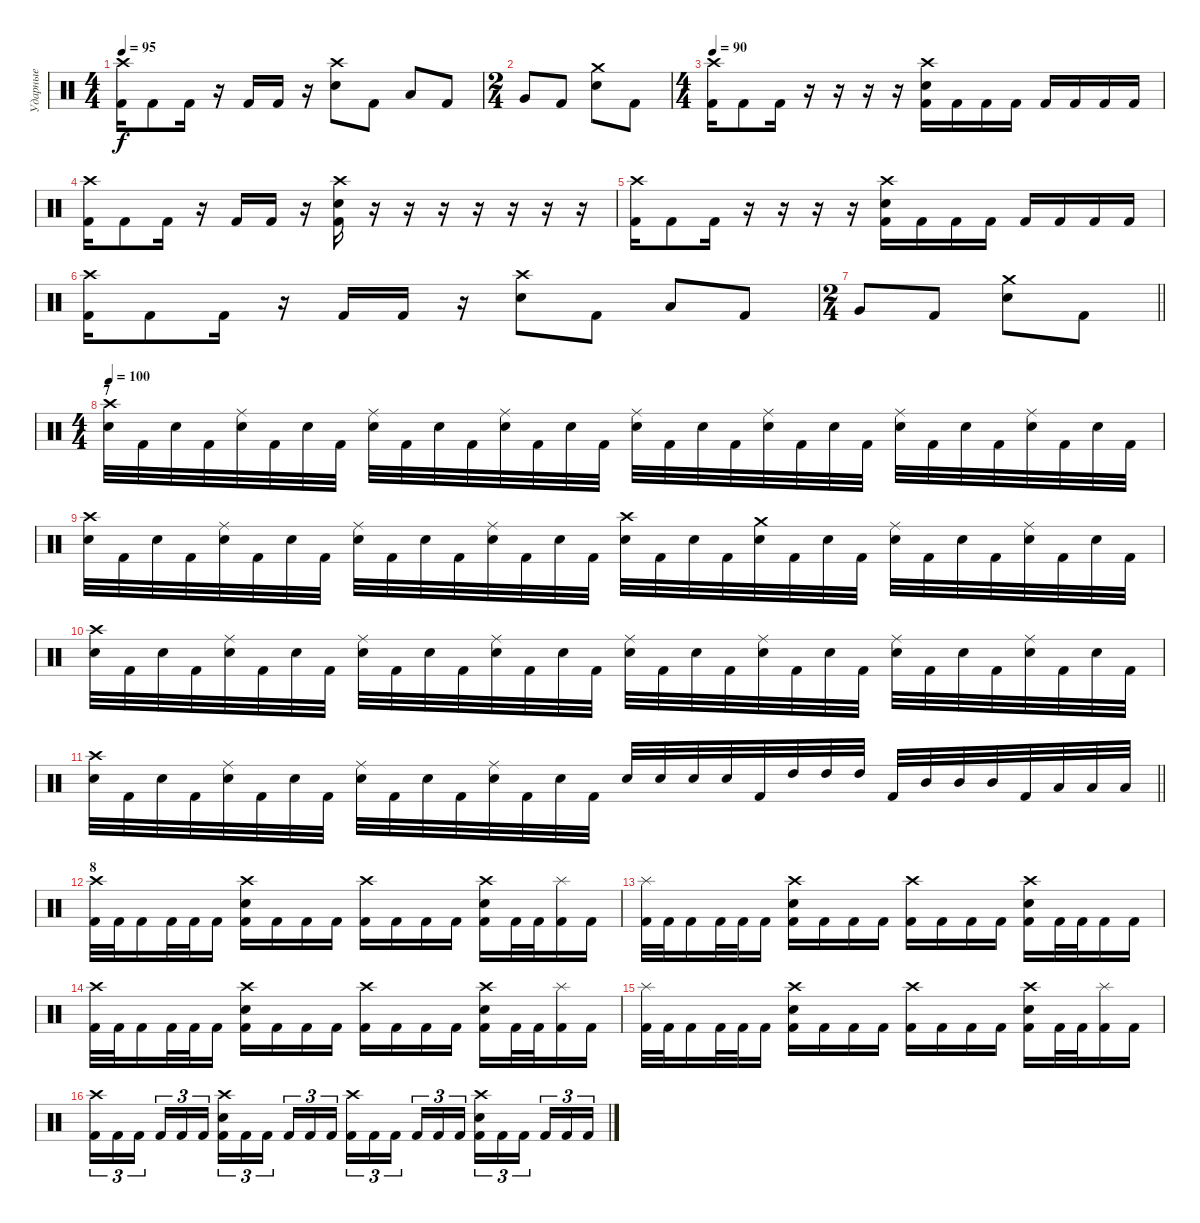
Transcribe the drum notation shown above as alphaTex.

\track ("Ударные" "Ударные") {instrument percussion}
\staff {score}
\articulation defaults
\ts (4 4)
\tempo 95
\clef neutral
\ks c
("Crash high (hit)" "Kick (hit) 2").16{dy f} "Kick (hit) 2".8 "Kick (hit) 2".16 r.16 "Kick (hit) 2".16 "Kick (hit) 2".16 r.16 ("Crash high (hit)" "Electric Snare (hit)").8 "Kick (hit) 2".8 "Low Tom (hit)".8 "Kick (hit) 2".8 |
\ts (2 4)
"Very Low Tom (hit)".8 "Kick (hit) 2".8 ("Crash medium (hit)" "Electric Snare (hit)").8 "Kick (hit) 2".8 |
\ts (4 4)
\tempo 90
("Crash high (hit)" "Kick (hit) 2").16 "Kick (hit) 2".8 "Kick (hit) 2".16 r.16 r.16 r.16 r.16 ("Crash high (hit)" "Electric Snare (hit)" "Kick (hit) 2").16 "Kick (hit) 2".16 "Kick (hit) 2".16 "Kick (hit) 2".16 "Kick (hit) 2".16 "Kick (hit) 2".16 "Kick (hit) 2".16 "Kick (hit) 2".16 |
("Crash high (hit)" "Kick (hit) 2").16 "Kick (hit) 2".8 "Kick (hit) 2".16 r.16 "Kick (hit) 2".16 "Kick (hit) 2".16 r.16 ("Crash high (hit)" "Electric Snare (hit)" "Kick (hit) 2").16 r.16 r.16 r.16 r.16 r.16 r.16 r.16 |
("Crash high (hit)" "Kick (hit) 2").16 "Kick (hit) 2".8 "Kick (hit) 2".16 r.16 r.16 r.16 r.16 ("Crash high (hit)" "Electric Snare (hit)" "Kick (hit) 2").16 "Kick (hit) 2".16 "Kick (hit) 2".16 "Kick (hit) 2".16 "Kick (hit) 2".16 "Kick (hit) 2".16 "Kick (hit) 2".16 "Kick (hit) 2".16 |
("Crash high (hit)" "Kick (hit) 2").16 "Kick (hit) 2".8 "Kick (hit) 2".16 r.16 "Kick (hit) 2".16 "Kick (hit) 2".16 r.16 ("Crash high (hit)" "Electric Snare (hit)").8 "Kick (hit) 2".8 "Low Tom (hit)".8 "Kick (hit) 2".8 |
\ts (2 4)
\barLineRight lightlight "Very Low Tom (hit)".8 "Kick (hit) 2".8
("Crash medium (hit)" "Electric Snare (hit)").8 "Kick (hit) 2".8 |
\ts (4 4)
\section ("" "7")
\tempo 100
("Crash high (hit)" "Electric Snare (hit)").32 "Kick (hit) 2".32 "Electric Snare (hit)".32 "Kick (hit) 2".32 ("Ride (middle)" "Electric Snare (hit)").32 "Kick (hit) 2".32 "Electric Snare (hit)".32 "Kick (hit) 2".32 ("Ride (middle)" "Electric Snare (hit)").32 "Kick (hit) 2".32 "Electric Snare (hit)".32 "Kick (hit) 2".32 ("Ride (middle)" "Electric Snare (hit)").32 "Kick (hit) 2".32 "Electric Snare (hit)".32 "Kick (hit) 2".32 ("Ride (middle)" "Electric Snare (hit)").32 "Kick (hit) 2".32 "Electric Snare (hit)".32 "Kick (hit) 2".32 ("Ride (middle)" "Electric Snare (hit)").32 "Kick (hit) 2".32 "Electric Snare (hit)".32 "Kick (hit) 2".32 ("Ride (middle)" "Electric Snare (hit)").32 "Kick (hit) 2".32 "Electric Snare (hit)".32 "Kick (hit) 2".32 ("Ride (middle)" "Electric Snare (hit)").32 "Kick (hit) 2".32 "Electric Snare (hit)".32 "Kick (hit) 2".32 |
("Crash high (hit)" "Electric Snare (hit)").32 "Kick (hit) 2".32 "Electric Snare (hit)".32 "Kick (hit) 2".32 ("Ride (middle)" "Electric Snare (hit)").32 "Kick (hit) 2".32 "Electric Snare (hit)".32 "Kick (hit) 2".32 ("Ride (middle)" "Electric Snare (hit)").32 "Kick (hit) 2".32 "Electric Snare (hit)".32 "Kick (hit) 2".32 ("Ride (middle)" "Electric Snare (hit)").32 "Kick (hit) 2".32 "Electric Snare (hit)".32 "Kick (hit) 2".32 ("Crash high (hit)" "Electric Snare (hit)").32 "Kick (hit) 2".32 "Electric Snare (hit)".32 "Kick (hit) 2".32 ("Crash medium (hit)" "Electric Snare (hit)").32 "Kick (hit) 2".32 "Electric Snare (hit)".32 "Kick (hit) 2".32 ("Ride (middle)" "Electric Snare (hit)").32 "Kick (hit) 2".32 "Electric Snare (hit)".32 "Kick (hit) 2".32 ("Ride (middle)" "Electric Snare (hit)").32 "Kick (hit) 2".32 "Electric Snare (hit)".32 "Kick (hit) 2".32 |
("Crash high (hit)" "Electric Snare (hit)").32 "Kick (hit) 2".32 "Electric Snare (hit)".32 "Kick (hit) 2".32 ("Ride (middle)" "Electric Snare (hit)").32 "Kick (hit) 2".32 "Electric Snare (hit)".32 "Kick (hit) 2".32 ("Ride (middle)" "Electric Snare (hit)").32 "Kick (hit) 2".32 "Electric Snare (hit)".32 "Kick (hit) 2".32 ("Ride (middle)" "Electric Snare (hit)").32 "Kick (hit) 2".32 "Electric Snare (hit)".32 "Kick (hit) 2".32 ("Ride (middle)" "Electric Snare (hit)").32 "Kick (hit) 2".32 "Electric Snare (hit)".32 "Kick (hit) 2".32 ("Ride (middle)" "Electric Snare (hit)").32 "Kick (hit) 2".32 "Electric Snare (hit)".32 "Kick (hit) 2".32 ("Ride (middle)" "Electric Snare (hit)").32 "Kick (hit) 2".32 "Electric Snare (hit)".32 "Kick (hit) 2".32 ("Ride (middle)" "Electric Snare (hit)").32 "Kick (hit) 2".32 "Electric Snare (hit)".32 "Kick (hit) 2".32 |
\barLineRight lightlight
("Crash high (hit)" "Electric Snare (hit)").32 "Kick (hit) 2".32 "Electric Snare (hit)".32 "Kick (hit) 2".32 ("Ride (middle)" "Electric Snare (hit)").32 "Kick (hit) 2".32 "Electric Snare (hit)".32 "Kick (hit) 2".32 ("Ride (middle)" "Electric Snare (hit)").32 "Kick (hit) 2".32 "Electric Snare (hit)".32 "Kick (hit) 2".32 ("Ride (middle)" "Electric Snare (hit)").32 "Kick (hit) 2".32 "Electric Snare (hit)".32 "Kick (hit) 2".32 "Electric Snare (hit)".32 "Electric Snare (hit)".32 "Electric Snare (hit)".32 "Electric Snare (hit)".32 "Kick (hit) 2".32 "High Tom (hit)".32 "High Tom (hit)".32 "High Tom (hit)".32 "Kick (hit) 2".32 "Mid Tom (hit)".32 "Mid Tom (hit)".32 "Mid Tom (hit)".32 "Kick (hit) 2".32 "Low Tom (hit)".32 "Low Tom (hit)".32 "Low Tom (hit)".32 |
\section ("" "8")
("Crash high (hit)" "Kick (hit) 2").32 "Kick (hit) 2".32 "Kick (hit) 2".16 "Kick (hit) 2".32 "Kick (hit) 2".32 "Kick (hit) 2".16 ("Crash high (hit)" "Electric Snare (hit)" "Kick (hit) 2").16 "Kick (hit) 2".16 "Kick (hit) 2".16 "Kick (hit) 2".16 ("Crash high (hit)" "Kick (hit) 2").16 "Kick (hit) 2".16 "Kick (hit) 2".16 "Kick (hit) 2".16 ("Crash high (hit)" "Electric Snare (hit)" "Kick (hit) 2").16 "Kick (hit) 2".32 "Kick (hit) 2".32 ("Splash (hit)" "Kick (hit) 2").16 "Kick (hit) 2".16 |
("Splash (hit)" "Kick (hit) 2").32 "Kick (hit) 2".32 "Kick (hit) 2".16 "Kick (hit) 2".32 "Kick (hit) 2".32 "Kick (hit) 2".16 ("Crash high (hit)" "Electric Snare (hit)" "Kick (hit) 2").16 "Kick (hit) 2".16 "Kick (hit) 2".16 "Kick (hit) 2".16 ("Crash high (hit)" "Kick (hit) 2").16 "Kick (hit) 2".16 "Kick (hit) 2".16 "Kick (hit) 2".16 ("Crash high (hit)" "Electric Snare (hit)" "Kick (hit) 2").16 "Kick (hit) 2".32 "Kick (hit) 2".32 "Kick (hit) 2".16 "Kick (hit) 2".16 |
("Crash high (hit)" "Kick (hit) 2").32 "Kick (hit) 2".32 "Kick (hit) 2".16 "Kick (hit) 2".32 "Kick (hit) 2".32 "Kick (hit) 2".16 ("Crash high (hit)" "Electric Snare (hit)" "Kick (hit) 2").16 "Kick (hit) 2".16 "Kick (hit) 2".16 "Kick (hit) 2".16 ("Crash high (hit)" "Kick (hit) 2").16 "Kick (hit) 2".16 "Kick (hit) 2".16 "Kick (hit) 2".16 ("Crash high (hit)" "Electric Snare (hit)" "Kick (hit) 2").16 "Kick (hit) 2".32 "Kick (hit) 2".32 ("Splash (hit)" "Kick (hit) 2").16 "Kick (hit) 2".16 |
("Splash (hit)" "Kick (hit) 2").32 "Kick (hit) 2".32 "Kick (hit) 2".16 "Kick (hit) 2".32 "Kick (hit) 2".32 "Kick (hit) 2".16 ("Crash high (hit)" "Electric Snare (hit)" "Kick (hit) 2").16 "Kick (hit) 2".16 "Kick (hit) 2".16 "Kick (hit) 2".16 ("Crash high (hit)" "Kick (hit) 2").16 "Kick (hit) 2".16 "Kick (hit) 2".16 "Kick (hit) 2".16 ("Crash high (hit)" "Electric Snare (hit)" "Kick (hit) 2").16 "Kick (hit) 2".32 "Kick (hit) 2".32 ("Splash (hit)" "Kick (hit) 2").16 "Kick (hit) 2".16 |
("Crash high (hit)" "Kick (hit) 2").16{tu (3 2)} "Kick (hit) 2".16{tu (3 2)} "Kick (hit) 2".16{tu (3 2) beam splitsecondary} "Kick (hit) 2".16{tu (3 2)} "Kick (hit) 2".16{tu (3 2)} "Kick (hit) 2".16{tu (3 2)} ("Crash high (hit)" "Electric Snare (hit)" "Kick (hit) 2").16{tu (3 2)} "Kick (hit) 2".16{tu (3 2)} "Kick (hit) 2".16{tu (3 2) beam splitsecondary} "Kick (hit) 2".16{tu (3 2)} "Kick (hit) 2".16{tu (3 2)} "Kick (hit) 2".16{tu (3 2)} ("Crash high (hit)" "Kick (hit) 2").16{tu (3 2)} "Kick (hit) 2".16{tu (3 2)} "Kick (hit) 2".16{tu (3 2) beam splitsecondary} "Kick (hit) 2".16{tu (3 2)} "Kick (hit) 2".16{tu (3 2)} "Kick (hit) 2".16{tu (3 2)} ("Crash high (hit)" "Electric Snare (hit)" "Kick (hit) 2").16{tu (3 2)} "Kick (hit) 2".16{tu (3 2)} "Kick (hit) 2".16{tu (3 2) beam splitsecondary} "Kick (hit) 2".16{tu (3 2)} "Kick (hit) 2".16{tu (3 2)} "Kick (hit) 2".16{tu (3 2)}
